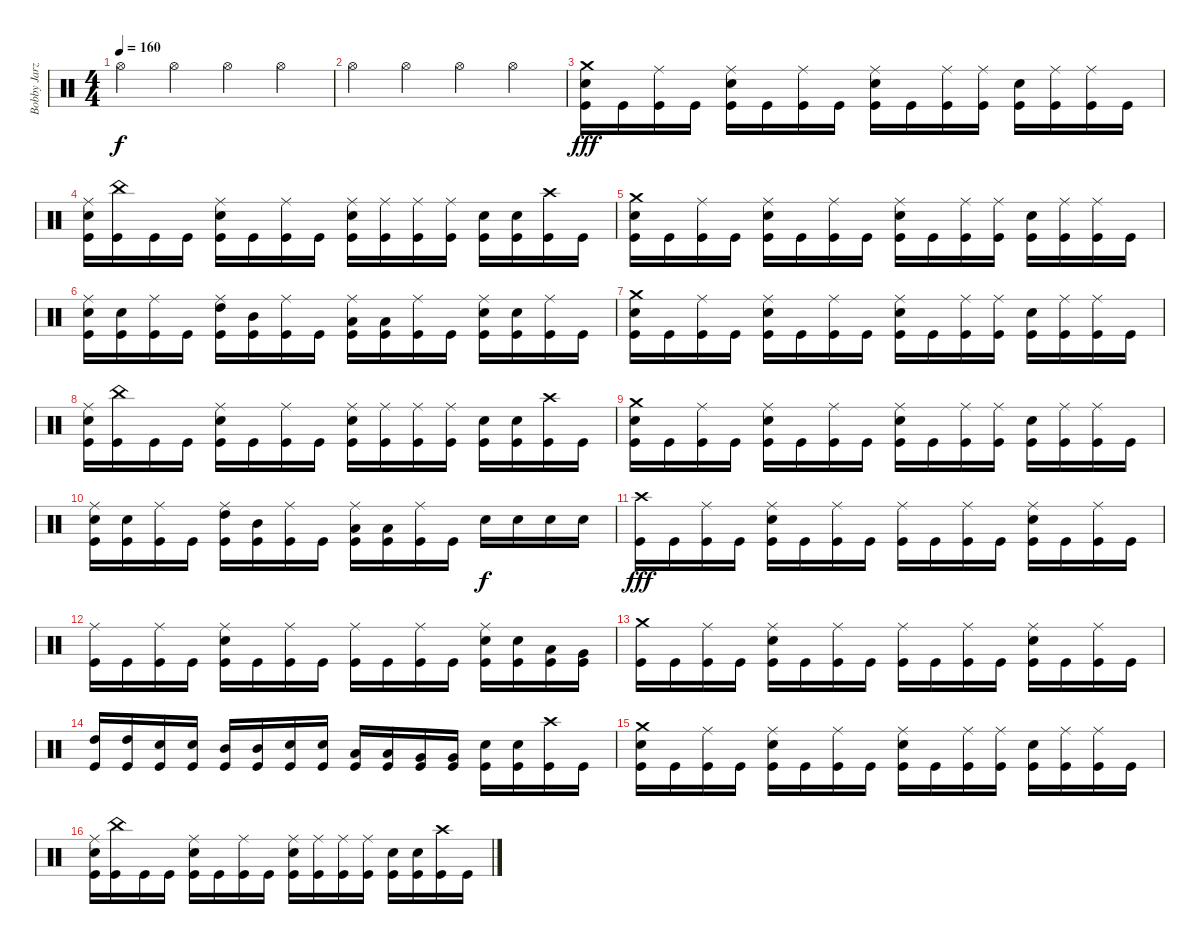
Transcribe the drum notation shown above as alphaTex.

\track ("Bobby Jarzombek" "Bobby Jarz") {instrument percussion}
\staff {score}
\articulation defaults
\ts (4 4)
\tempo 160
\clef neutral
\ks c "Hi-Hat (open)".4{dy f} "Hi-Hat (open)".4 "Hi-Hat (open)".4 "Hi-Hat (open)".4
|
"Hi-Hat (open)".4 "Hi-Hat (open)".4 "Hi-Hat (open)".4 "Hi-Hat (open)".4 |
("Crash medium (hit)" "Electric Snare (hit)" "Kick (hit)").16{dy fff} "Kick (hit)".16 ("Ride (middle)" "Kick (hit)").16 "Kick (hit)".16 ("Ride (middle)" "Electric Snare (hit)" "Kick (hit)").16 "Kick (hit)".16 ("Ride (middle)" "Kick (hit)").16 "Kick (hit)".16 ("Ride (middle)" "Electric Snare (hit)" "Kick (hit)").16 "Kick (hit)".16 ("Ride (middle)" "Kick (hit)").16 ("Ride (middle)" "Kick (hit)").16 ("Electric Snare (hit)" "Kick (hit)").16 ("Ride (middle)" "Kick (hit)").16 ("Ride (middle)" "Kick (hit)").16 "Kick (hit)".16 |
("Ride (middle)" "Electric Snare (hit)" "Kick (hit)").16 ("China (hit)" "Kick (hit)").16 "Kick (hit)".16 "Kick (hit)".16 ("Ride (middle)" "Electric Snare (hit)" "Kick (hit)").16 "Kick (hit)".16 ("Ride (middle)" "Kick (hit)").16 "Kick (hit)".16 ("Ride (middle)" "Electric Snare (hit)" "Kick (hit)").16 ("Ride (middle)" "Kick (hit)").16 ("Ride (middle)" "Kick (hit)").16 ("Ride (middle)" "Kick (hit)").16 ("Electric Snare (hit)" "Kick (hit)").16 ("Electric Snare (hit)" "Kick (hit)").16 ("Crash high (hit)" "Kick (hit)").16 "Kick (hit)".16 |
("Crash medium (hit)" "Electric Snare (hit)" "Kick (hit)").16 "Kick (hit)".16 ("Ride (middle)" "Kick (hit)").16 "Kick (hit)".16 ("Ride (middle)" "Electric Snare (hit)" "Kick (hit)").16 "Kick (hit)".16 ("Ride (middle)" "Kick (hit)").16 "Kick (hit)".16 ("Ride (middle)" "Electric Snare (hit)" "Kick (hit)").16 "Kick (hit)".16 ("Ride (middle)" "Kick (hit)").16 ("Ride (middle)" "Kick (hit)").16 ("Electric Snare (hit)" "Kick (hit)").16 ("Ride (middle)" "Kick (hit)").16 ("Ride (middle)" "Kick (hit)").16 "Kick (hit)".16 |
("Ride (middle)" "Electric Snare (hit)" "Kick (hit)").16 ("Electric Snare (hit)" "Kick (hit)").16 ("Ride (middle)" "Kick (hit)").16 "Kick (hit)".16 ("Ride (middle)" "High Tom (hit)" "Kick (hit)").16 ("Mid Tom (hit)" "Kick (hit)").16 ("Ride (middle)" "Kick (hit)").16 "Kick (hit)".16 ("Ride (middle)" "Low Tom (hit)" "Kick (hit)").16 ("Low Tom (hit)" "Kick (hit)").16 ("Ride (middle)" "Kick (hit)").16 "Kick (hit)".16 ("Ride (middle)" "Electric Snare (hit)" "Kick (hit)").16 ("Electric Snare (hit)" "Kick (hit)").16 ("Ride (middle)" "Kick (hit)").16 "Kick (hit)".16 |
("Crash medium (hit)" "Electric Snare (hit)" "Kick (hit)").16 "Kick (hit)".16 ("Ride (middle)" "Kick (hit)").16 "Kick (hit)".16 ("Ride (middle)" "Electric Snare (hit)" "Kick (hit)").16 "Kick (hit)".16 ("Ride (middle)" "Kick (hit)").16 "Kick (hit)".16 ("Ride (middle)" "Electric Snare (hit)" "Kick (hit)").16 "Kick (hit)".16 ("Ride (middle)" "Kick (hit)").16 ("Ride (middle)" "Kick (hit)").16 ("Electric Snare (hit)" "Kick (hit)").16 ("Ride (middle)" "Kick (hit)").16 ("Ride (middle)" "Kick (hit)").16 "Kick (hit)".16 |
("Ride (middle)" "Electric Snare (hit)" "Kick (hit)").16 ("China (hit)" "Kick (hit)").16 "Kick (hit)".16 "Kick (hit)".16 ("Ride (middle)" "Electric Snare (hit)" "Kick (hit)").16 "Kick (hit)".16 ("Ride (middle)" "Kick (hit)").16 "Kick (hit)".16 ("Ride (middle)" "Electric Snare (hit)" "Kick (hit)").16 ("Ride (middle)" "Kick (hit)").16 ("Ride (middle)" "Kick (hit)").16 ("Ride (middle)" "Kick (hit)").16 ("Electric Snare (hit)" "Kick (hit)").16 ("Electric Snare (hit)" "Kick (hit)").16 ("Crash high (hit)" "Kick (hit)").16 "Kick (hit)".16 |
("Crash medium (hit)" "Electric Snare (hit)" "Kick (hit)").16 "Kick (hit)".16 ("Ride (middle)" "Kick (hit)").16 "Kick (hit)".16 ("Ride (middle)" "Electric Snare (hit)" "Kick (hit)").16 "Kick (hit)".16 ("Ride (middle)" "Kick (hit)").16 "Kick (hit)".16 ("Ride (middle)" "Electric Snare (hit)" "Kick (hit)").16 "Kick (hit)".16 ("Ride (middle)" "Kick (hit)").16 ("Ride (middle)" "Kick (hit)").16 ("Electric Snare (hit)" "Kick (hit)").16 ("Ride (middle)" "Kick (hit)").16 ("Ride (middle)" "Kick (hit)").16 "Kick (hit)".16 |
("Ride (middle)" "Electric Snare (hit)" "Kick (hit)").16 ("Electric Snare (hit)" "Kick (hit)").16 ("Ride (middle)" "Kick (hit)").16 "Kick (hit)".16 ("Ride (middle)" "High Tom (hit)" "Kick (hit)").16 ("Mid Tom (hit)" "Kick (hit)").16 ("Ride (middle)" "Kick (hit)").16 "Kick (hit)".16 ("Ride (middle)" "Low Tom (hit)" "Kick (hit)").16 ("Low Tom (hit)" "Kick (hit)").16 ("Ride (middle)" "Kick (hit)").16 "Kick (hit)".16 "Electric Snare (hit)".16{dy f} "Electric Snare (hit)".16 "Electric Snare (hit)".16 "Electric Snare (hit)".16 |
("Crash high (hit)" "Kick (hit)").16{dy fff} "Kick (hit)".16 ("Ride (middle)" "Kick (hit)").16 "Kick (hit)".16 ("Ride (middle)" "Electric Snare (hit)" "Kick (hit)").16 "Kick (hit)".16 ("Ride (middle)" "Kick (hit)").16 "Kick (hit)".16 ("Ride (middle)" "Kick (hit)").16 "Kick (hit)".16 ("Ride (middle)" "Kick (hit)").16 "Kick (hit)".16 ("Ride (middle)" "Electric Snare (hit)" "Kick (hit)").16 "Kick (hit)".16 ("Ride (middle)" "Kick (hit)").16 "Kick (hit)".16 |
("Ride (middle)" "Kick (hit)").16 "Kick (hit)".16 ("Ride (middle)" "Kick (hit)").16 "Kick (hit)".16 ("Ride (middle)" "Electric Snare (hit)" "Kick (hit)").16 "Kick (hit)".16 ("Ride (middle)" "Kick (hit)").16 "Kick (hit)".16 ("Ride (middle)" "Kick (hit)").16 "Kick (hit)".16 ("Ride (middle)" "Kick (hit)").16 "Kick (hit)".16 ("Ride (middle)" "Electric Snare (hit)" "Kick (hit)").16 ("Electric Snare (hit)" "Kick (hit)").16 ("Low Tom (hit)" "Kick (hit)").16 ("Very Low Tom (hit)" "Kick (hit)").16 |
("Crash medium (hit)" "Kick (hit)").16 "Kick (hit)".16 ("Ride (middle)" "Kick (hit)").16 "Kick (hit)".16 ("Ride (middle)" "Electric Snare (hit)" "Kick (hit)").16 "Kick (hit)".16 ("Ride (middle)" "Kick (hit)").16 "Kick (hit)".16 ("Ride (middle)" "Kick (hit)").16 "Kick (hit)".16 ("Ride (middle)" "Kick (hit)").16 "Kick (hit)".16 ("Ride (middle)" "Electric Snare (hit)" "Kick (hit)").16 "Kick (hit)".16 ("Ride (middle)" "Kick (hit)").16 "Kick (hit)".16 |
("High Tom (hit)" "Kick (hit)").16 ("High Tom (hit)" "Kick (hit)").16 ("Electric Snare (hit)" "Kick (hit)").16 ("Electric Snare (hit)" "Kick (hit)").16 ("Mid Tom (hit)" "Kick (hit)").16 ("Mid Tom (hit)" "Kick (hit)").16 ("Electric Snare (hit)" "Kick (hit)").16 ("Electric Snare (hit)" "Kick (hit)").16 ("Low Tom (hit)" "Kick (hit)").16 ("Low Tom (hit)" "Kick (hit)").16 ("Very Low Tom (hit)" "Kick (hit)").16 ("Very Low Tom (hit)" "Kick (hit)").16 ("Electric Snare (hit)" "Kick (hit)").16 ("Electric Snare (hit)" "Kick (hit)").16 ("Crash high (hit)" "Kick (hit)").16 "Kick (hit)".16 |
("Crash medium (hit)" "Electric Snare (hit)" "Kick (hit)").16 "Kick (hit)".16 ("Ride (middle)" "Kick (hit)").16 "Kick (hit)".16 ("Ride (middle)" "Electric Snare (hit)" "Kick (hit)").16 "Kick (hit)".16 ("Ride (middle)" "Kick (hit)").16 "Kick (hit)".16 ("Ride (middle)" "Electric Snare (hit)" "Kick (hit)").16 "Kick (hit)".16 ("Ride (middle)" "Kick (hit)").16 ("Ride (middle)" "Kick (hit)").16 ("Electric Snare (hit)" "Kick (hit)").16 ("Ride (middle)" "Kick (hit)").16 ("Ride (middle)" "Kick (hit)").16 "Kick (hit)".16 |
("Ride (middle)" "Electric Snare (hit)" "Kick (hit)").16 ("China (hit)" "Kick (hit)").16 "Kick (hit)".16 "Kick (hit)".16 ("Ride (middle)" "Electric Snare (hit)" "Kick (hit)").16 "Kick (hit)".16 ("Ride (middle)" "Kick (hit)").16 "Kick (hit)".16 ("Ride (middle)" "Electric Snare (hit)" "Kick (hit)").16 ("Ride (middle)" "Kick (hit)").16 ("Ride (middle)" "Kick (hit)").16 ("Ride (middle)" "Kick (hit)").16 ("Electric Snare (hit)" "Kick (hit)").16 ("Electric Snare (hit)" "Kick (hit)").16 ("Crash high (hit)" "Kick (hit)").16 "Kick (hit)".16
